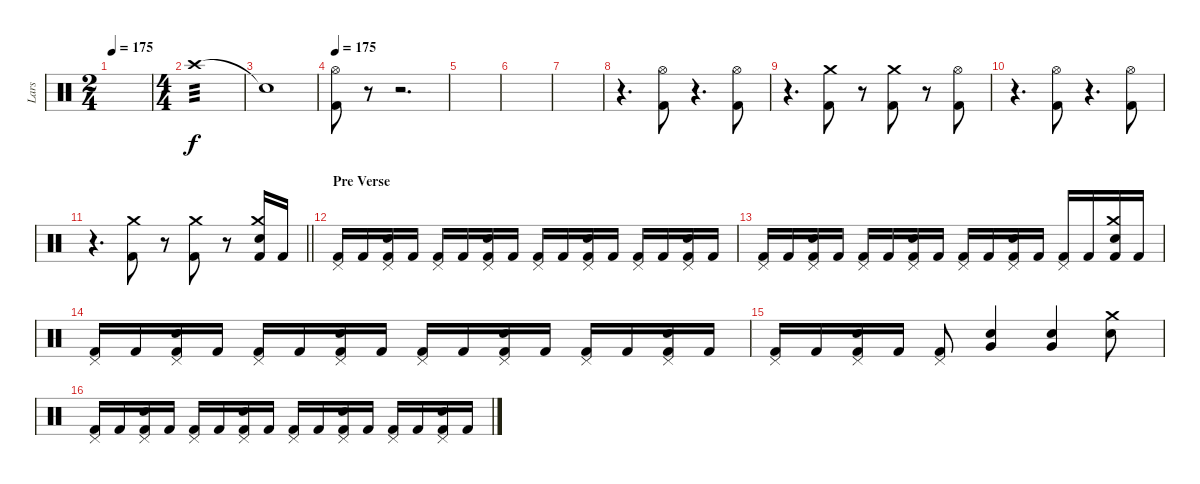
\track ("Lars" "Lars") {instrument percussion}
\staff {score}
\articulation defaults
\ts (2 4)
\tempo 175
\clef neutral
\ks c
|
\ts (4 4)
"Crash high (hit)".1{tp 3 volume 16} |
"Snare (hit)"{t}.1 |
\tempo 175
("Hi-Hat (open)" "Kick (hit) 2").8 r.8 r.2{d} |
|
|
|
r.4{d} ("Hi-Hat (open)" "Kick (hit) 2").8 r.4{d} ("Hi-Hat (open)" "Kick (hit) 2").8 |
r.4{d} ("Crash medium (hit)" "Kick (hit) 2").8 r.8 ("Crash medium (hit)" "Kick (hit) 2").8 r.8 ("Hi-Hat (open)" "Kick (hit) 2").8 |
r.4{d} ("Hi-Hat (open)" "Kick (hit) 2").8 r.4{d} ("Hi-Hat (open)" "Kick (hit) 2").8 |
\barLineRight lightlight
r.4{d} ("Crash medium (hit)" "Kick (hit) 2").8 r.8 ("Crash medium (hit)" "Kick (hit) 2").8 r.8 ("Crash medium (hit)" "Electric Snare (hit)" "Kick (hit) 2").16 "Kick (hit) 2".16 |
\section ("" "Pre Verse")
("Pedal Hi-Hat (hit)" "Kick (hit) 2").16 "Kick (hit) 2".16 ("Pedal Hi-Hat (hit)" "Electric Snare (hit)" "Kick (hit) 2").16 "Kick (hit) 2".16 ("Pedal Hi-Hat (hit)" "Kick (hit) 2").16 "Kick (hit) 2".16 ("Pedal Hi-Hat (hit)" "Electric Snare (hit)" "Kick (hit) 2").16 "Kick (hit) 2".16 ("Pedal Hi-Hat (hit)" "Kick (hit) 2").16 "Kick (hit) 2".16 ("Pedal Hi-Hat (hit)" "Electric Snare (hit)" "Kick (hit) 2").16 "Kick (hit) 2".16 ("Pedal Hi-Hat (hit)" "Kick (hit) 2").16 "Kick (hit) 2".16 ("Pedal Hi-Hat (hit)" "Electric Snare (hit)" "Kick (hit) 2").16 "Kick (hit) 2".16 |
("Pedal Hi-Hat (hit)" "Kick (hit) 2").16 "Kick (hit) 2".16 ("Pedal Hi-Hat (hit)" "Electric Snare (hit)" "Kick (hit) 2").16 "Kick (hit) 2".16 ("Pedal Hi-Hat (hit)" "Kick (hit) 2").16 "Kick (hit) 2".16 ("Pedal Hi-Hat (hit)" "Electric Snare (hit)" "Kick (hit) 2").16 "Kick (hit) 2".16 ("Pedal Hi-Hat (hit)" "Kick (hit) 2").16 "Kick (hit) 2".16 ("Pedal Hi-Hat (hit)" "Electric Snare (hit)" "Kick (hit) 2").16 "Kick (hit) 2".16 ("Pedal Hi-Hat (hit)" "Kick (hit) 2").16 "Kick (hit) 2".16 ("Crash medium (hit)" "Electric Snare (hit)" "Kick (hit) 2").16 "Kick (hit) 2".16 |
("Pedal Hi-Hat (hit)" "Kick (hit) 2").16 "Kick (hit) 2".16 ("Pedal Hi-Hat (hit)" "Electric Snare (hit)" "Kick (hit) 2").16 "Kick (hit) 2".16 ("Pedal Hi-Hat (hit)" "Kick (hit) 2").16 "Kick (hit) 2".16 ("Pedal Hi-Hat (hit)" "Electric Snare (hit)" "Kick (hit) 2").16 "Kick (hit) 2".16 ("Pedal Hi-Hat (hit)" "Kick (hit) 2").16 "Kick (hit) 2".16 ("Pedal Hi-Hat (hit)" "Electric Snare (hit)" "Kick (hit) 2").16 "Kick (hit) 2".16 ("Pedal Hi-Hat (hit)" "Kick (hit) 2").16 "Kick (hit) 2".16 ("Pedal Hi-Hat (hit)" "Electric Snare (hit)" "Kick (hit) 2").16 "Kick (hit) 2".16 |
("Pedal Hi-Hat (hit)" "Kick (hit) 2").16 "Kick (hit) 2".16 ("Pedal Hi-Hat (hit)" "Electric Snare (hit)" "Kick (hit) 2").16 "Kick (hit) 2".16 ("Pedal Hi-Hat (hit)" "Kick (hit) 2").8 ("Electric Snare (hit)" "Very Low Tom (hit)").4 ("Electric Snare (hit)" "Very Low Tom (hit)").4 ("Crash medium (hit)" "Electric Snare (hit)").8 |
("Pedal Hi-Hat (hit)" "Kick (hit) 2").16 "Kick (hit) 2".16 ("Pedal Hi-Hat (hit)" "Electric Snare (hit)" "Kick (hit) 2").16 "Kick (hit) 2".16 ("Pedal Hi-Hat (hit)" "Kick (hit) 2").16 "Kick (hit) 2".16 ("Pedal Hi-Hat (hit)" "Electric Snare (hit)" "Kick (hit) 2").16 "Kick (hit) 2".16 ("Pedal Hi-Hat (hit)" "Kick (hit) 2").16 "Kick (hit) 2".16 ("Pedal Hi-Hat (hit)" "Electric Snare (hit)" "Kick (hit) 2").16 "Kick (hit) 2".16 ("Pedal Hi-Hat (hit)" "Kick (hit) 2").16 "Kick (hit) 2".16 ("Pedal Hi-Hat (hit)" "Electric Snare (hit)" "Kick (hit) 2").16 "Kick (hit) 2".16
